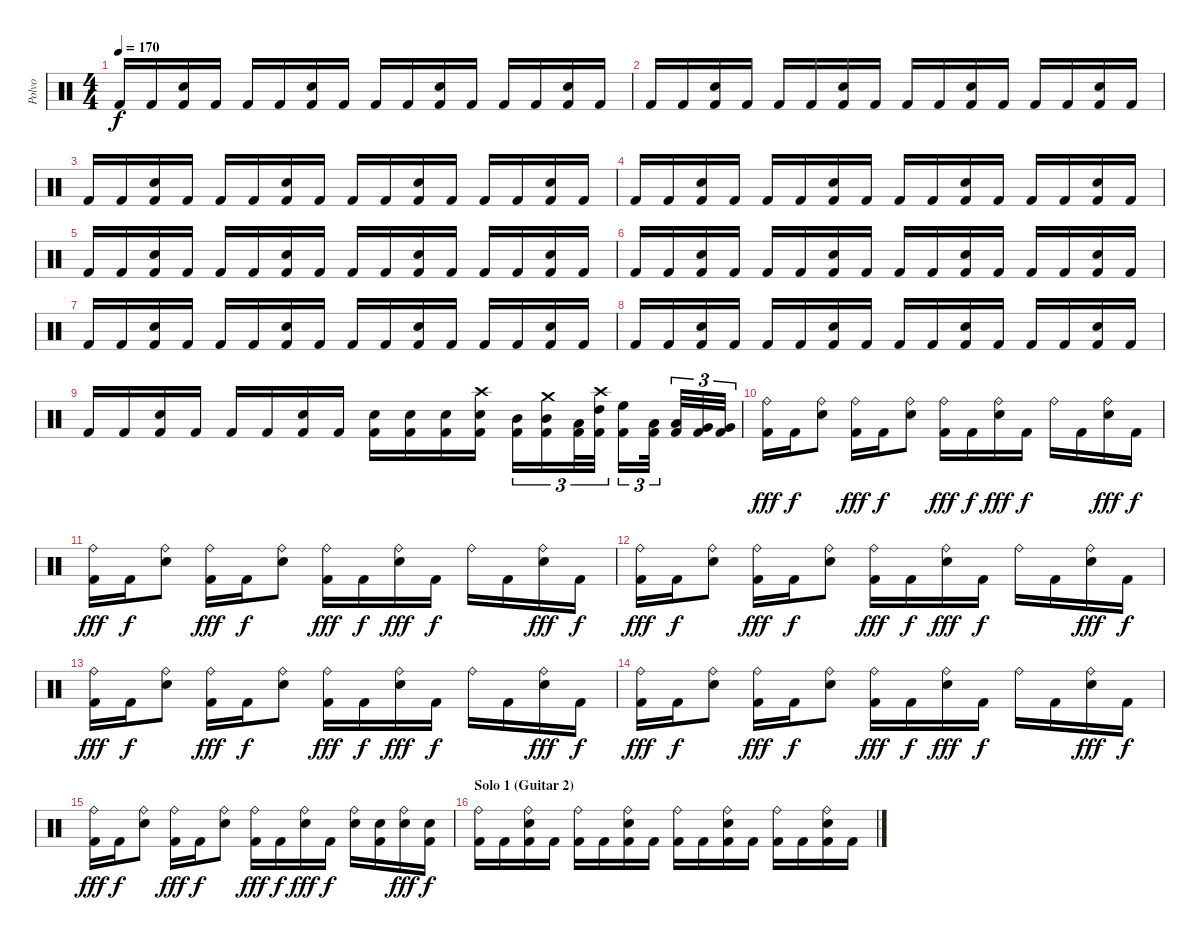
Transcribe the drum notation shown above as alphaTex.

\track ("Polvo" "Polvo") {instrument percussion}
\staff {score}
\articulation defaults
\ts (4 4)
\tempo 170
\clef neutral
\ks c "Kick (hit) 2".16{dy f} "Kick (hit) 2".16
("Electric Snare (hit)" "Kick (hit) 2").16 "Kick (hit) 2".16 "Kick (hit) 2".16 "Kick (hit) 2".16 ("Electric Snare (hit)" "Kick (hit) 2").16 "Kick (hit) 2".16 "Kick (hit) 2".16 "Kick (hit) 2".16 ("Electric Snare (hit)" "Kick (hit) 2").16 "Kick (hit) 2".16 "Kick (hit) 2".16 "Kick (hit) 2".16 ("Electric Snare (hit)" "Kick (hit) 2").16 "Kick (hit) 2".16 |
"Kick (hit) 2".16 "Kick (hit) 2".16 ("Electric Snare (hit)" "Kick (hit) 2").16 "Kick (hit) 2".16 "Kick (hit) 2".16 "Kick (hit) 2".16 ("Electric Snare (hit)" "Kick (hit) 2").16 "Kick (hit) 2".16 "Kick (hit) 2".16 "Kick (hit) 2".16 ("Electric Snare (hit)" "Kick (hit) 2").16 "Kick (hit) 2".16 "Kick (hit) 2".16 "Kick (hit) 2".16 ("Electric Snare (hit)" "Kick (hit) 2").16 "Kick (hit) 2".16 |
"Kick (hit) 2".16 "Kick (hit) 2".16 ("Electric Snare (hit)" "Kick (hit) 2").16 "Kick (hit) 2".16 "Kick (hit) 2".16 "Kick (hit) 2".16 ("Electric Snare (hit)" "Kick (hit) 2").16 "Kick (hit) 2".16 "Kick (hit) 2".16 "Kick (hit) 2".16 ("Electric Snare (hit)" "Kick (hit) 2").16 "Kick (hit) 2".16 "Kick (hit) 2".16 "Kick (hit) 2".16 ("Electric Snare (hit)" "Kick (hit) 2").16 "Kick (hit) 2".16 |
"Kick (hit) 2".16 "Kick (hit) 2".16 ("Electric Snare (hit)" "Kick (hit) 2").16 "Kick (hit) 2".16 "Kick (hit) 2".16 "Kick (hit) 2".16 ("Electric Snare (hit)" "Kick (hit) 2").16 "Kick (hit) 2".16 "Kick (hit) 2".16 "Kick (hit) 2".16 ("Electric Snare (hit)" "Kick (hit) 2").16 "Kick (hit) 2".16 "Kick (hit) 2".16 "Kick (hit) 2".16 ("Electric Snare (hit)" "Kick (hit) 2").16 "Kick (hit) 2".16 |
"Kick (hit) 2".16 "Kick (hit) 2".16 ("Electric Snare (hit)" "Kick (hit) 2").16 "Kick (hit) 2".16 "Kick (hit) 2".16 "Kick (hit) 2".16 ("Electric Snare (hit)" "Kick (hit) 2").16 "Kick (hit) 2".16 "Kick (hit) 2".16 "Kick (hit) 2".16 ("Electric Snare (hit)" "Kick (hit) 2").16 "Kick (hit) 2".16 "Kick (hit) 2".16 "Kick (hit) 2".16 ("Electric Snare (hit)" "Kick (hit) 2").16 "Kick (hit) 2".16 |
"Kick (hit) 2".16 "Kick (hit) 2".16 ("Electric Snare (hit)" "Kick (hit) 2").16 "Kick (hit) 2".16 "Kick (hit) 2".16 "Kick (hit) 2".16 ("Electric Snare (hit)" "Kick (hit) 2").16 "Kick (hit) 2".16 "Kick (hit) 2".16 "Kick (hit) 2".16 ("Electric Snare (hit)" "Kick (hit) 2").16 "Kick (hit) 2".16 "Kick (hit) 2".16 "Kick (hit) 2".16 ("Electric Snare (hit)" "Kick (hit) 2").16 "Kick (hit) 2".16 |
"Kick (hit) 2".16 "Kick (hit) 2".16 ("Electric Snare (hit)" "Kick (hit) 2").16 "Kick (hit) 2".16 "Kick (hit) 2".16 "Kick (hit) 2".16 ("Electric Snare (hit)" "Kick (hit) 2").16 "Kick (hit) 2".16 "Kick (hit) 2".16 "Kick (hit) 2".16 ("Electric Snare (hit)" "Kick (hit) 2").16 "Kick (hit) 2".16 "Kick (hit) 2".16 "Kick (hit) 2".16 ("Electric Snare (hit)" "Kick (hit) 2").16 "Kick (hit) 2".16 |
"Kick (hit) 2".16 "Kick (hit) 2".16 ("Electric Snare (hit)" "Kick (hit) 2").16 "Kick (hit) 2".16 "Kick (hit) 2".16 "Kick (hit) 2".16 ("Electric Snare (hit)" "Kick (hit) 2").16 "Kick (hit) 2".16 "Kick (hit) 2".16 "Kick (hit) 2".16 ("Electric Snare (hit)" "Kick (hit) 2").16 "Kick (hit) 2".16 "Kick (hit) 2".16 "Kick (hit) 2".16 ("Electric Snare (hit)" "Kick (hit) 2").16 "Kick (hit) 2".16 |
"Kick (hit) 2".16 "Kick (hit) 2".16 ("Electric Snare (hit)" "Kick (hit) 2").16 "Kick (hit) 2".16 "Kick (hit) 2".16 "Kick (hit) 2".16 ("Electric Snare (hit)" "Kick (hit) 2").16 "Kick (hit) 2".16 ("Electric Snare (hit)" "Kick (hit) 2").16 ("Electric Snare (hit)" "Kick (hit) 2").16 ("Electric Snare (hit)" "Kick (hit) 2").16 ("Crash high (hit)" "Electric Snare (hit)" "Kick (hit) 2").16 ("Mid Tom (hit)" "Kick (hit) 2").16{tu (3 2)} ("Crash medium (hit)" "Mid Tom (hit)" "Kick (hit) 2").16{tu (3 2)} ("Low Tom (hit)" "Kick (hit) 2").32{tu (3 2)} ("Crash high (hit)" "High Tom (hit)" "Kick (hit) 2").32{tu (3 2)} ("High Floor Tom (hit)" "Kick (hit) 2").16{tu (3 2)} ("Low Floor Tom (hit)" "Kick (hit) 2").32{tu (3 2)} ("Low Floor Tom (hit)" "Kick (hit) 2").32{tu (3 2)} ("Very Low Tom (hit)" "Kick (hit) 2").32{tu (3 2)} ("Very Low Tom (hit)" "Kick (hit) 2").32{tu (3 2)} |
("Ride (bell)" "Kick (hit) 2").16{dy fff} "Kick (hit) 2".16{dy f} ("Ride (bell)" "Electric Snare (hit)").8 ("Ride (bell)" "Kick (hit) 2").16{dy fff} "Kick (hit) 2".16{dy f} ("Ride (bell)" "Electric Snare (hit)").8 ("Ride (bell)" "Kick (hit) 2").16{dy fff} "Kick (hit) 2".16{dy f} ("Ride (bell)" "Electric Snare (hit)").16{dy fff} "Kick (hit) 2".16{dy f} "Ride (bell)".16 "Kick (hit) 2".16 ("Ride (bell)" "Electric Snare (hit)").16{dy fff} "Kick (hit) 2".16{dy f} |
("Ride (bell)" "Kick (hit) 2").16{dy fff} "Kick (hit) 2".16{dy f} ("Ride (bell)" "Electric Snare (hit)").8 ("Ride (bell)" "Kick (hit) 2").16{dy fff} "Kick (hit) 2".16{dy f} ("Ride (bell)" "Electric Snare (hit)").8 ("Ride (bell)" "Kick (hit) 2").16{dy fff} "Kick (hit) 2".16{dy f} ("Ride (bell)" "Electric Snare (hit)").16{dy fff} "Kick (hit) 2".16{dy f} "Ride (bell)".16 "Kick (hit) 2".16 ("Ride (bell)" "Electric Snare (hit)").16{dy fff} "Kick (hit) 2".16{dy f} |
("Ride (bell)" "Kick (hit) 2").16{dy fff} "Kick (hit) 2".16{dy f} ("Ride (bell)" "Electric Snare (hit)").8 ("Ride (bell)" "Kick (hit) 2").16{dy fff} "Kick (hit) 2".16{dy f} ("Ride (bell)" "Electric Snare (hit)").8 ("Ride (bell)" "Kick (hit) 2").16{dy fff} "Kick (hit) 2".16{dy f} ("Ride (bell)" "Electric Snare (hit)").16{dy fff} "Kick (hit) 2".16{dy f} "Ride (bell)".16 "Kick (hit) 2".16 ("Ride (bell)" "Electric Snare (hit)").16{dy fff} "Kick (hit) 2".16{dy f} |
("Ride (bell)" "Kick (hit) 2").16{dy fff} "Kick (hit) 2".16{dy f} ("Ride (bell)" "Electric Snare (hit)").8 ("Ride (bell)" "Kick (hit) 2").16{dy fff} "Kick (hit) 2".16{dy f} ("Ride (bell)" "Electric Snare (hit)").8 ("Ride (bell)" "Kick (hit) 2").16{dy fff} "Kick (hit) 2".16{dy f} ("Ride (bell)" "Electric Snare (hit)").16{dy fff} "Kick (hit) 2".16{dy f} "Ride (bell)".16 "Kick (hit) 2".16 ("Ride (bell)" "Electric Snare (hit)").16{dy fff} "Kick (hit) 2".16{dy f} |
("Ride (bell)" "Kick (hit) 2").16{dy fff} "Kick (hit) 2".16{dy f} ("Ride (bell)" "Electric Snare (hit)").8 ("Ride (bell)" "Kick (hit) 2").16{dy fff} "Kick (hit) 2".16{dy f} ("Ride (bell)" "Electric Snare (hit)").8 ("Ride (bell)" "Kick (hit) 2").16{dy fff} "Kick (hit) 2".16{dy f} ("Ride (bell)" "Electric Snare (hit)").16{dy fff} "Kick (hit) 2".16{dy f} "Ride (bell)".16 "Kick (hit) 2".16 ("Ride (bell)" "Electric Snare (hit)").16{dy fff} "Kick (hit) 2".16{dy f} |
("Ride (bell)" "Kick (hit) 2").16{dy fff} "Kick (hit) 2".16{dy f} ("Ride (bell)" "Electric Snare (hit)").8 ("Ride (bell)" "Kick (hit) 2").16{dy fff} "Kick (hit) 2".16{dy f} ("Ride (bell)" "Electric Snare (hit)").8 ("Ride (bell)" "Kick (hit) 2").16{dy fff} "Kick (hit) 2".16{dy f} ("Ride (bell)" "Electric Snare (hit)").16{dy fff} "Kick (hit) 2".16{dy f} ("Ride (bell)" "Electric Snare (hit)").16 ("Electric Snare (hit)" "Kick (hit) 2").16 ("Ride (bell)" "Electric Snare (hit)").16{dy fff} ("Electric Snare (hit)" "Kick (hit) 2").16{dy f} |
\section ("" "Solo 1 (Guitar 2)")
("Ride (bell)" "Kick (hit) 2").16 "Kick (hit) 2".16 ("Ride (bell)" "Electric Snare (hit)" "Kick (hit) 2").16 "Kick (hit) 2".16 ("Ride (bell)" "Kick (hit) 2").16 "Kick (hit) 2".16 ("Ride (bell)" "Electric Snare (hit)" "Kick (hit) 2").16 "Kick (hit) 2".16 ("Ride (bell)" "Kick (hit) 2").16 "Kick (hit) 2".16 ("Ride (bell)" "Electric Snare (hit)" "Kick (hit) 2").16 "Kick (hit) 2".16 ("Ride (bell)" "Kick (hit) 2").16 "Kick (hit) 2".16 ("Ride (bell)" "Electric Snare (hit)" "Kick (hit) 2").16 "Kick (hit) 2".16
